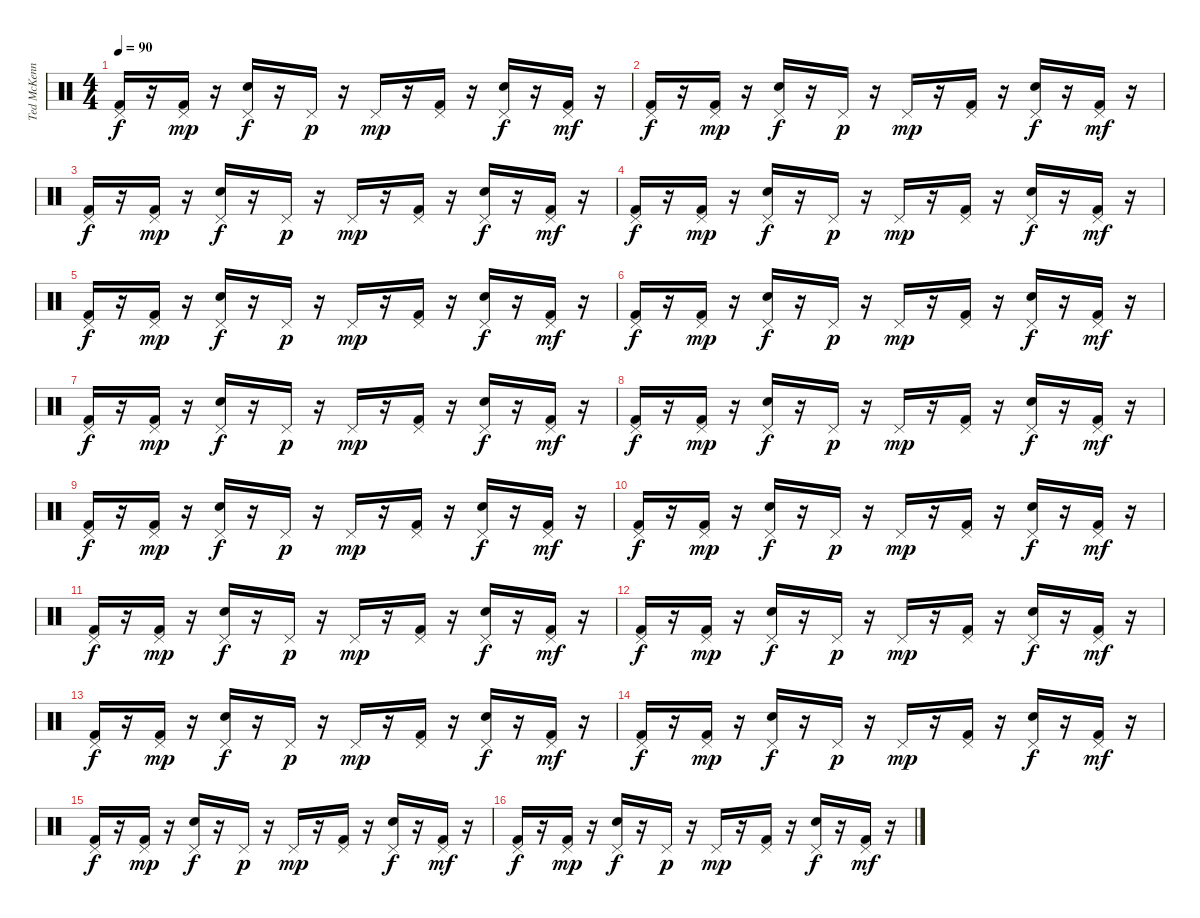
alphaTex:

\track ("Ted McKenna" "Ted McKenn") {instrument percussion}
\staff {score}
\articulation defaults
\ts (4 4)
\tempo 90
\clef neutral
\ks c
("Pedal Hi-Hat (hit)" "Kick (hit) 2").16{dy f} r.16 ("Pedal Hi-Hat (hit)" "Kick (hit) 2").16{dy mp} r.16 ("Pedal Hi-Hat (hit)" "Snare (hit) 2").16{dy f} r.16 "Pedal Hi-Hat (hit)".16{dy p} r.16 "Pedal Hi-Hat (hit)".16{dy mp} r.16 ("Pedal Hi-Hat (hit)" "Kick (hit) 2").16 r.16 ("Pedal Hi-Hat (hit)" "Snare (hit) 2").16{dy f} r.16 ("Pedal Hi-Hat (hit)" "Kick (hit) 2").16{dy mf} r.16 |
("Pedal Hi-Hat (hit)" "Kick (hit) 2").16{dy f} r.16 ("Pedal Hi-Hat (hit)" "Kick (hit) 2").16{dy mp} r.16 ("Pedal Hi-Hat (hit)" "Snare (hit) 2").16{dy f} r.16 "Pedal Hi-Hat (hit)".16{dy p} r.16 "Pedal Hi-Hat (hit)".16{dy mp} r.16 ("Pedal Hi-Hat (hit)" "Kick (hit) 2").16 r.16 ("Pedal Hi-Hat (hit)" "Snare (hit) 2").16{dy f} r.16 ("Pedal Hi-Hat (hit)" "Kick (hit) 2").16{dy mf} r.16 |
("Pedal Hi-Hat (hit)" "Kick (hit) 2").16{dy f} r.16 ("Pedal Hi-Hat (hit)" "Kick (hit) 2").16{dy mp} r.16 ("Pedal Hi-Hat (hit)" "Snare (hit) 2").16{dy f} r.16 "Pedal Hi-Hat (hit)".16{dy p} r.16 "Pedal Hi-Hat (hit)".16{dy mp} r.16 ("Pedal Hi-Hat (hit)" "Kick (hit) 2").16 r.16 ("Pedal Hi-Hat (hit)" "Snare (hit) 2").16{dy f} r.16 ("Pedal Hi-Hat (hit)" "Kick (hit) 2").16{dy mf} r.16 |
("Pedal Hi-Hat (hit)" "Kick (hit) 2").16{dy f} r.16 ("Pedal Hi-Hat (hit)" "Kick (hit) 2").16{dy mp} r.16 ("Pedal Hi-Hat (hit)" "Snare (hit) 2").16{dy f} r.16 "Pedal Hi-Hat (hit)".16{dy p} r.16 "Pedal Hi-Hat (hit)".16{dy mp} r.16 ("Pedal Hi-Hat (hit)" "Kick (hit) 2").16 r.16 ("Pedal Hi-Hat (hit)" "Snare (hit) 2").16{dy f} r.16 ("Pedal Hi-Hat (hit)" "Kick (hit) 2").16{dy mf} r.16 |
("Pedal Hi-Hat (hit)" "Kick (hit) 2").16{dy f} r.16 ("Pedal Hi-Hat (hit)" "Kick (hit) 2").16{dy mp} r.16 ("Pedal Hi-Hat (hit)" "Snare (hit) 2").16{dy f} r.16 "Pedal Hi-Hat (hit)".16{dy p} r.16 "Pedal Hi-Hat (hit)".16{dy mp} r.16 ("Pedal Hi-Hat (hit)" "Kick (hit) 2").16 r.16 ("Pedal Hi-Hat (hit)" "Snare (hit) 2").16{dy f} r.16 ("Pedal Hi-Hat (hit)" "Kick (hit) 2").16{dy mf} r.16 |
("Pedal Hi-Hat (hit)" "Kick (hit) 2").16{dy f} r.16 ("Pedal Hi-Hat (hit)" "Kick (hit) 2").16{dy mp} r.16 ("Pedal Hi-Hat (hit)" "Snare (hit) 2").16{dy f} r.16 "Pedal Hi-Hat (hit)".16{dy p} r.16 "Pedal Hi-Hat (hit)".16{dy mp} r.16 ("Pedal Hi-Hat (hit)" "Kick (hit) 2").16 r.16 ("Pedal Hi-Hat (hit)" "Snare (hit) 2").16{dy f} r.16 ("Pedal Hi-Hat (hit)" "Kick (hit) 2").16{dy mf} r.16 |
("Pedal Hi-Hat (hit)" "Kick (hit) 2").16{dy f} r.16 ("Pedal Hi-Hat (hit)" "Kick (hit) 2").16{dy mp} r.16 ("Pedal Hi-Hat (hit)" "Snare (hit) 2").16{dy f} r.16 "Pedal Hi-Hat (hit)".16{dy p} r.16 "Pedal Hi-Hat (hit)".16{dy mp} r.16 ("Pedal Hi-Hat (hit)" "Kick (hit) 2").16 r.16 ("Pedal Hi-Hat (hit)" "Snare (hit) 2").16{dy f} r.16 ("Pedal Hi-Hat (hit)" "Kick (hit) 2").16{dy mf} r.16 |
("Pedal Hi-Hat (hit)" "Kick (hit) 2").16{dy f} r.16 ("Pedal Hi-Hat (hit)" "Kick (hit) 2").16{dy mp} r.16 ("Pedal Hi-Hat (hit)" "Snare (hit) 2").16{dy f} r.16 "Pedal Hi-Hat (hit)".16{dy p} r.16 "Pedal Hi-Hat (hit)".16{dy mp} r.16 ("Pedal Hi-Hat (hit)" "Kick (hit) 2").16 r.16 ("Pedal Hi-Hat (hit)" "Snare (hit) 2").16{dy f} r.16 ("Pedal Hi-Hat (hit)" "Kick (hit) 2").16{dy mf} r.16 |
("Pedal Hi-Hat (hit)" "Kick (hit) 2").16{dy f} r.16 ("Pedal Hi-Hat (hit)" "Kick (hit) 2").16{dy mp} r.16 ("Pedal Hi-Hat (hit)" "Snare (hit) 2").16{dy f} r.16 "Pedal Hi-Hat (hit)".16{dy p} r.16 "Pedal Hi-Hat (hit)".16{dy mp} r.16 ("Pedal Hi-Hat (hit)" "Kick (hit) 2").16 r.16 ("Pedal Hi-Hat (hit)" "Snare (hit) 2").16{dy f} r.16 ("Pedal Hi-Hat (hit)" "Kick (hit) 2").16{dy mf} r.16 |
("Pedal Hi-Hat (hit)" "Kick (hit) 2").16{dy f} r.16 ("Pedal Hi-Hat (hit)" "Kick (hit) 2").16{dy mp} r.16 ("Pedal Hi-Hat (hit)" "Snare (hit) 2").16{dy f} r.16 "Pedal Hi-Hat (hit)".16{dy p} r.16 "Pedal Hi-Hat (hit)".16{dy mp} r.16 ("Pedal Hi-Hat (hit)" "Kick (hit) 2").16 r.16 ("Pedal Hi-Hat (hit)" "Snare (hit) 2").16{dy f} r.16 ("Pedal Hi-Hat (hit)" "Kick (hit) 2").16{dy mf} r.16 |
("Pedal Hi-Hat (hit)" "Kick (hit) 2").16{dy f} r.16 ("Pedal Hi-Hat (hit)" "Kick (hit) 2").16{dy mp} r.16 ("Pedal Hi-Hat (hit)" "Snare (hit) 2").16{dy f} r.16 "Pedal Hi-Hat (hit)".16{dy p} r.16 "Pedal Hi-Hat (hit)".16{dy mp} r.16 ("Pedal Hi-Hat (hit)" "Kick (hit) 2").16 r.16 ("Pedal Hi-Hat (hit)" "Snare (hit) 2").16{dy f} r.16 ("Pedal Hi-Hat (hit)" "Kick (hit) 2").16{dy mf} r.16 |
("Pedal Hi-Hat (hit)" "Kick (hit) 2").16{dy f} r.16 ("Pedal Hi-Hat (hit)" "Kick (hit) 2").16{dy mp} r.16 ("Pedal Hi-Hat (hit)" "Snare (hit) 2").16{dy f} r.16 "Pedal Hi-Hat (hit)".16{dy p} r.16 "Pedal Hi-Hat (hit)".16{dy mp} r.16 ("Pedal Hi-Hat (hit)" "Kick (hit) 2").16 r.16 ("Pedal Hi-Hat (hit)" "Snare (hit) 2").16{dy f} r.16 ("Pedal Hi-Hat (hit)" "Kick (hit) 2").16{dy mf} r.16 |
("Pedal Hi-Hat (hit)" "Kick (hit) 2").16{dy f} r.16 ("Pedal Hi-Hat (hit)" "Kick (hit) 2").16{dy mp} r.16 ("Pedal Hi-Hat (hit)" "Snare (hit) 2").16{dy f} r.16 "Pedal Hi-Hat (hit)".16{dy p} r.16 "Pedal Hi-Hat (hit)".16{dy mp} r.16 ("Pedal Hi-Hat (hit)" "Kick (hit) 2").16 r.16 ("Pedal Hi-Hat (hit)" "Snare (hit) 2").16{dy f} r.16 ("Pedal Hi-Hat (hit)" "Kick (hit) 2").16{dy mf} r.16 |
("Pedal Hi-Hat (hit)" "Kick (hit) 2").16{dy f} r.16 ("Pedal Hi-Hat (hit)" "Kick (hit) 2").16{dy mp} r.16 ("Pedal Hi-Hat (hit)" "Snare (hit) 2").16{dy f} r.16 "Pedal Hi-Hat (hit)".16{dy p} r.16 "Pedal Hi-Hat (hit)".16{dy mp} r.16 ("Pedal Hi-Hat (hit)" "Kick (hit) 2").16 r.16 ("Pedal Hi-Hat (hit)" "Snare (hit) 2").16{dy f} r.16 ("Pedal Hi-Hat (hit)" "Kick (hit) 2").16{dy mf} r.16 |
("Pedal Hi-Hat (hit)" "Kick (hit) 2").16{dy f} r.16 ("Pedal Hi-Hat (hit)" "Kick (hit) 2").16{dy mp} r.16 ("Pedal Hi-Hat (hit)" "Snare (hit) 2").16{dy f} r.16 "Pedal Hi-Hat (hit)".16{dy p} r.16 "Pedal Hi-Hat (hit)".16{dy mp} r.16 ("Pedal Hi-Hat (hit)" "Kick (hit) 2").16 r.16 ("Pedal Hi-Hat (hit)" "Snare (hit) 2").16{dy f} r.16 ("Pedal Hi-Hat (hit)" "Kick (hit) 2").16{dy mf} r.16 |
("Pedal Hi-Hat (hit)" "Kick (hit) 2").16{dy f} r.16 ("Pedal Hi-Hat (hit)" "Kick (hit) 2").16{dy mp} r.16 ("Pedal Hi-Hat (hit)" "Snare (hit) 2").16{dy f} r.16 "Pedal Hi-Hat (hit)".16{dy p} r.16 "Pedal Hi-Hat (hit)".16{dy mp} r.16 ("Pedal Hi-Hat (hit)" "Kick (hit) 2").16 r.16 ("Pedal Hi-Hat (hit)" "Snare (hit) 2").16{dy f} r.16 ("Pedal Hi-Hat (hit)" "Kick (hit) 2").16{dy mf} r.16
